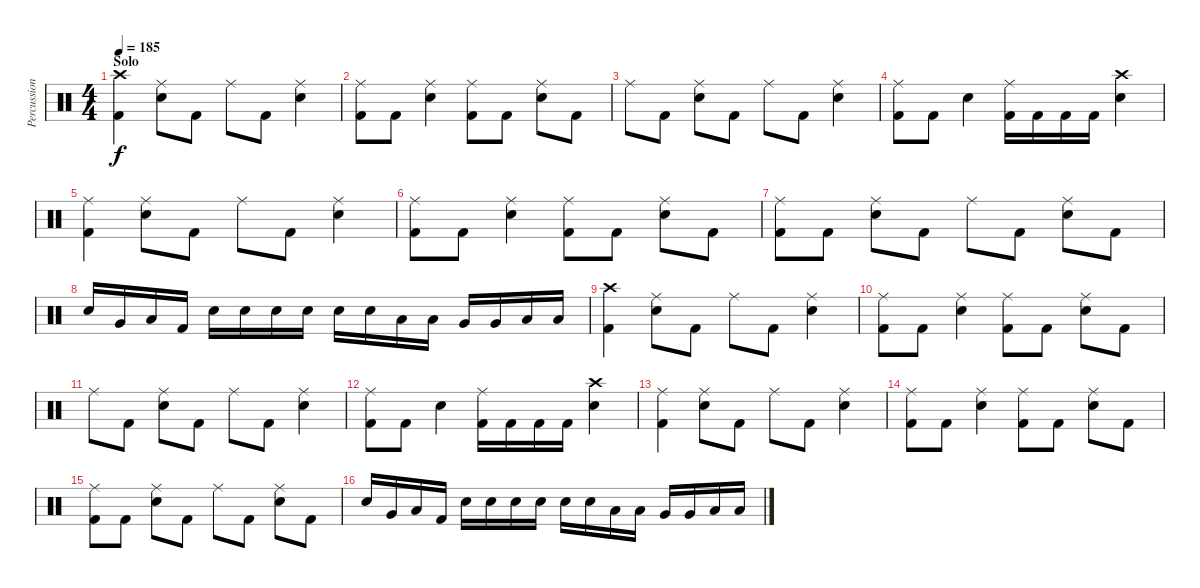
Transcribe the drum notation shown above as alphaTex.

\track ("Percussion" "Percussion") {instrument percussion}
\staff {score}
\articulation defaults
\ts (4 4)
\section ("" "Solo")
\tempo 185
\clef neutral
\ks c
("Crash high (hit)" "Kick (hit) 2").4{dy f} ("Ride (middle)" "Snare (hit) 2").8 "Kick (hit) 2".8 "Ride (middle)".8 "Kick (hit) 2".8 ("Ride (middle)" "Snare (hit) 2").4 |
("Ride (middle)" "Kick (hit) 2").8 "Kick (hit) 2".8 ("Ride (middle)" "Snare (hit) 2").4 ("Ride (middle)" "Kick (hit) 2").8 "Kick (hit) 2".8 ("Ride (middle)" "Snare (hit) 2").8 "Kick (hit) 2".8 |
"Ride (middle)".8 "Kick (hit) 2".8 ("Ride (middle)" "Snare (hit) 2").8 "Kick (hit) 2".8 "Ride (middle)".8 "Kick (hit) 2".8 ("Ride (middle)" "Snare (hit) 2").4 |
("Ride (middle)" "Kick (hit) 2").8 "Kick (hit) 2".8 "Snare (hit) 2".4 ("Ride (middle)" "Kick (hit) 2").16 "Kick (hit) 2".16 "Kick (hit) 2".16 "Kick (hit) 2".16 ("Crash high (hit)" "Snare (hit) 2").4 |
("Ride (middle)" "Kick (hit) 2").4 ("Ride (middle)" "Snare (hit) 2").8 "Kick (hit) 2".8 "Ride (middle)".8 "Kick (hit) 2".8 ("Ride (middle)" "Snare (hit) 2").4 |
("Ride (middle)" "Kick (hit) 2").8 "Kick (hit) 2".8 ("Ride (middle)" "Snare (hit) 2").4 ("Ride (middle)" "Kick (hit) 2").8 "Kick (hit) 2".8 ("Ride (middle)" "Snare (hit) 2").8 "Kick (hit) 2".8 |
("Ride (middle)" "Kick (hit) 2").8 "Kick (hit) 2".8 ("Ride (middle)" "Snare (hit) 2").8 "Kick (hit) 2".8 "Ride (middle)".8 "Kick (hit) 2".8 ("Ride (middle)" "Snare (hit) 2").8 "Kick (hit) 2".8 |
"Snare (hit) 2".16 "Very Low Tom (hit)".16 "Low Floor Tom (hit)".16 "Kick (hit) 2".16 "Snare (hit) 2".16 "Snare (hit) 2".16 "Snare (hit) 2".16 "Snare (hit) 2".16 "Snare (hit) 2".16 "Snare (hit) 2".16 "Low Tom (hit)".16 "Low Tom (hit)".16 "Very Low Tom (hit)".16 "Very Low Tom (hit)".16 "Low Floor Tom (hit)".16 "Low Floor Tom (hit)".16 |
("Crash high (hit)" "Kick (hit) 2").4 ("Ride (middle)" "Snare (hit) 2").8 "Kick (hit) 2".8 "Ride (middle)".8 "Kick (hit) 2".8 ("Ride (middle)" "Snare (hit) 2").4 |
("Ride (middle)" "Kick (hit) 2").8 "Kick (hit) 2".8 ("Ride (middle)" "Snare (hit) 2").4 ("Ride (middle)" "Kick (hit) 2").8 "Kick (hit) 2".8 ("Ride (middle)" "Snare (hit) 2").8 "Kick (hit) 2".8 |
"Ride (middle)".8 "Kick (hit) 2".8 ("Ride (middle)" "Snare (hit) 2").8 "Kick (hit) 2".8 "Ride (middle)".8 "Kick (hit) 2".8 ("Ride (middle)" "Snare (hit) 2").4 |
("Ride (middle)" "Kick (hit) 2").8 "Kick (hit) 2".8 "Snare (hit) 2".4 ("Ride (middle)" "Kick (hit) 2").16 "Kick (hit) 2".16 "Kick (hit) 2".16 "Kick (hit) 2".16 ("Crash high (hit)" "Snare (hit) 2").4 |
("Ride (middle)" "Kick (hit) 2").4 ("Ride (middle)" "Snare (hit) 2").8 "Kick (hit) 2".8 "Ride (middle)".8 "Kick (hit) 2".8 ("Ride (middle)" "Snare (hit) 2").4 |
("Ride (middle)" "Kick (hit) 2").8 "Kick (hit) 2".8 ("Ride (middle)" "Snare (hit) 2").4 ("Ride (middle)" "Kick (hit) 2").8 "Kick (hit) 2".8 ("Ride (middle)" "Snare (hit) 2").8 "Kick (hit) 2".8 |
("Ride (middle)" "Kick (hit) 2").8 "Kick (hit) 2".8 ("Ride (middle)" "Snare (hit) 2").8 "Kick (hit) 2".8 "Ride (middle)".8 "Kick (hit) 2".8 ("Ride (middle)" "Snare (hit) 2").8 "Kick (hit) 2".8 |
"Snare (hit) 2".16 "Very Low Tom (hit)".16 "Low Floor Tom (hit)".16 "Kick (hit) 2".16 "Snare (hit) 2".16 "Snare (hit) 2".16 "Snare (hit) 2".16 "Snare (hit) 2".16 "Snare (hit) 2".16 "Snare (hit) 2".16 "Low Tom (hit)".16 "Low Tom (hit)".16 "Very Low Tom (hit)".16 "Very Low Tom (hit)".16 "Low Floor Tom (hit)".16 "Low Floor Tom (hit)".16
